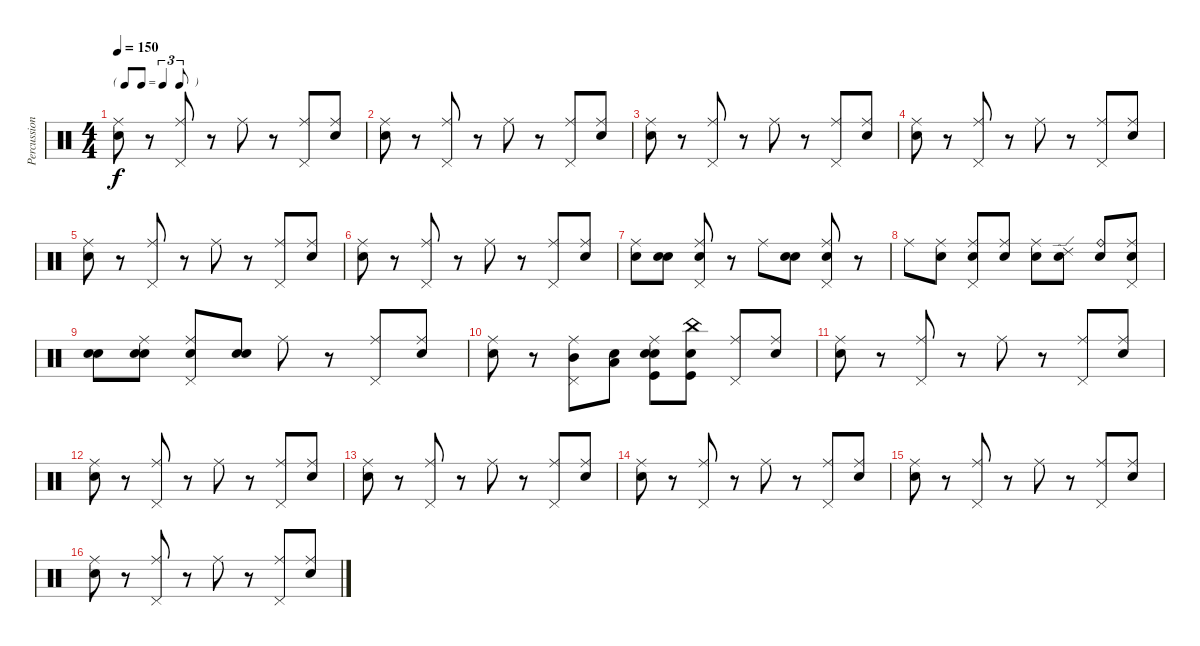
\track ("Percussions" "Percussion") {instrument percussion}
\staff {score}
\articulation defaults
\ts (4 4)
\tf triplet8th
\tempo 150
\clef neutral
\ks c
("Snare (hit)" "Ride (middle)").8{dy f} r.8 ("Pedal Hi-Hat (hit)" "Ride (middle)").8 r.8 "Ride (middle)".8 r.8 ("Pedal Hi-Hat (hit)" "Ride (middle)").8 ("Snare (hit)" "Ride (middle)").8 |
("Snare (hit)" "Ride (middle)").8 r.8 ("Pedal Hi-Hat (hit)" "Ride (middle)").8 r.8 "Ride (middle)".8 r.8 ("Pedal Hi-Hat (hit)" "Ride (middle)").8 ("Snare (hit)" "Ride (middle)").8 |
("Snare (hit)" "Ride (middle)").8 r.8 ("Pedal Hi-Hat (hit)" "Ride (middle)").8 r.8 "Ride (middle)".8 r.8 ("Pedal Hi-Hat (hit)" "Ride (middle)").8 ("Snare (hit)" "Ride (middle)").8 |
("Snare (hit)" "Ride (middle)").8 r.8 ("Pedal Hi-Hat (hit)" "Ride (middle)").8 r.8 "Ride (middle)".8 r.8 ("Ride (middle)" "Pedal Hi-Hat (hit)").8 ("Snare (hit)" "Ride (middle)").8 |
("Snare (hit)" "Ride (middle)").8 r.8 ("Ride (middle)" "Pedal Hi-Hat (hit)").8 r.8 "Ride (middle)".8 r.8 ("Ride (middle)" "Pedal Hi-Hat (hit)").8 ("Snare (hit)" "Ride (middle)").8 |
("Snare (hit)" "Ride (middle)").8 r.8 ("Ride (middle)" "Pedal Hi-Hat (hit)").8 r.8 "Ride (middle)".8 r.8 ("Ride (middle)" "Pedal Hi-Hat (hit)").8 ("Snare (hit)" "Ride (middle)").8 |
("Snare (hit)" "Ride (middle)").8 ("Snare (hit)" "Hand Clap (hit)").8 ("Snare (hit)" "Pedal Hi-Hat (hit)" "Ride (middle)").8 r.8 "Ride (middle)".8 ("Snare (hit)" "Hand Clap (hit)").8 ("Snare (hit)" "Pedal Hi-Hat (hit)" "Ride (middle)").8 r.8 |
"Ride (middle)".8 ("Snare (hit)" "Ride (middle)").8 ("Snare (hit)" "Pedal Hi-Hat (hit)" "Ride (middle)").8 ("Snare (hit)" "Ride (middle)").8 ("Snare (hit)" "Ride (middle)").8 ("Snare (hit)" "Ride (edge) 2").8 ("Snare (hit)" "Ride (bell)").8 ("Snare (hit)" "Pedal Hi-Hat (hit)" "Ride (middle)").8 |
("Snare (hit)" "Snare (hit) 2").8 ("Snare (hit)" "Hand Clap (hit)" "Ride (middle)").8 ("Snare (hit)" "Ride (middle)" "Pedal Hi-Hat (hit)").8 ("Snare (hit)" "Hand Clap (hit)").8 "Ride (middle)".8 r.8 ("Pedal Hi-Hat (hit)" "Ride (middle)").8 ("Snare (hit)" "Ride (middle)").8 |
("Snare (hit)" "Ride (middle)").8 r.8 ("Ride (middle)" "Pedal Hi-Hat (hit)" "Mid Tom (hit)").8 ("Snare (hit)" "Low Tom (hit)").8 ("Snare (hit)" "Kick (hit)" "Ride (middle)" "Hand Clap (hit)").8 ("Snare (hit)" "China (hit)" "Kick (hit)").8 ("Ride (middle)" "Pedal Hi-Hat (hit)").8 ("Snare (hit)" "Ride (middle)").8 |
("Snare (hit)" "Ride (middle)").8 r.8 ("Ride (middle)" "Pedal Hi-Hat (hit)").8 r.8 "Ride (middle)".8 r.8 ("Ride (middle)" "Pedal Hi-Hat (hit)").8 ("Snare (hit)" "Ride (middle)").8 |
("Snare (hit)" "Ride (middle)").8 r.8 ("Ride (middle)" "Pedal Hi-Hat (hit)").8 r.8 "Ride (middle)".8 r.8 ("Ride (middle)" "Pedal Hi-Hat (hit)").8 ("Snare (hit)" "Ride (middle)").8 |
("Snare (hit)" "Ride (middle)").8 r.8 ("Pedal Hi-Hat (hit)" "Ride (middle)").8 r.8 "Ride (middle)".8 r.8 ("Ride (middle)" "Pedal Hi-Hat (hit)").8 ("Snare (hit)" "Ride (middle)").8 |
("Snare (hit)" "Ride (middle)").8 r.8 ("Ride (middle)" "Pedal Hi-Hat (hit)").8 r.8 "Ride (middle)".8 r.8 ("Ride (middle)" "Pedal Hi-Hat (hit)").8 ("Snare (hit)" "Ride (middle)").8 |
("Snare (hit)" "Ride (middle)").8 r.8 ("Ride (middle)" "Pedal Hi-Hat (hit)").8 r.8 "Ride (middle)".8 r.8 ("Ride (middle)" "Pedal Hi-Hat (hit)").8 ("Snare (hit)" "Ride (middle)").8 |
("Snare (hit)" "Ride (middle)").8 r.8 ("Ride (middle)" "Pedal Hi-Hat (hit)").8 r.8 "Ride (middle)".8 r.8 ("Pedal Hi-Hat (hit)" "Ride (middle)").8 ("Snare (hit)" "Ride (middle)").8
